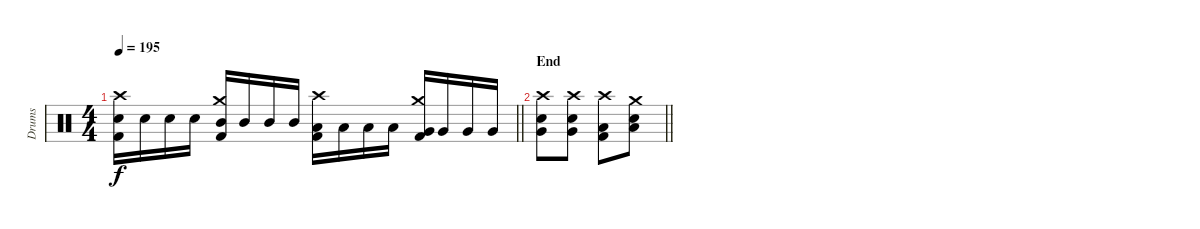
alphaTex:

\track ("Drums" "Drums") {instrument percussion}
\staff {score}
\articulation defaults
\ts (4 4)
\tempo 195
\clef neutral
\barLineRight lightlight
\ks c
("Crash high (hit)" "Snare (hit) 2" "Kick (hit) 2").16{dy f} "Snare (hit) 2".16 "Snare (hit) 2".16 "Snare (hit) 2".16 ("Crash medium (hit)" "Mid Tom (hit)" "Kick (hit) 2").16 "Mid Tom (hit)".16 "Mid Tom (hit)".16 "Mid Tom (hit)".16 ("Crash high (hit)" "Low Tom (hit)" "Kick (hit) 2").16 "Low Tom (hit)".16 "Low Tom (hit)".16 "Low Tom (hit)".16 ("Crash medium (hit)" "Very Low Tom (hit)" "Kick (hit) 2").16 "Very Low Tom (hit)".16 "Very Low Tom (hit)".16 "Very Low Tom (hit)".16 |
\section ("" "End")
\barLineRight lightlight
("Crash high (hit)" "Very Low Tom (hit)" "Snare (hit) 2").8 ("Crash high (hit)" "Very Low Tom (hit)" "Snare (hit) 2").8 ("Crash high (hit)" "Low Floor Tom (hit)" "Kick (hit) 2").8 ("Crash medium (hit)" "Low Floor Tom (hit)" "Snare (hit) 2").8
